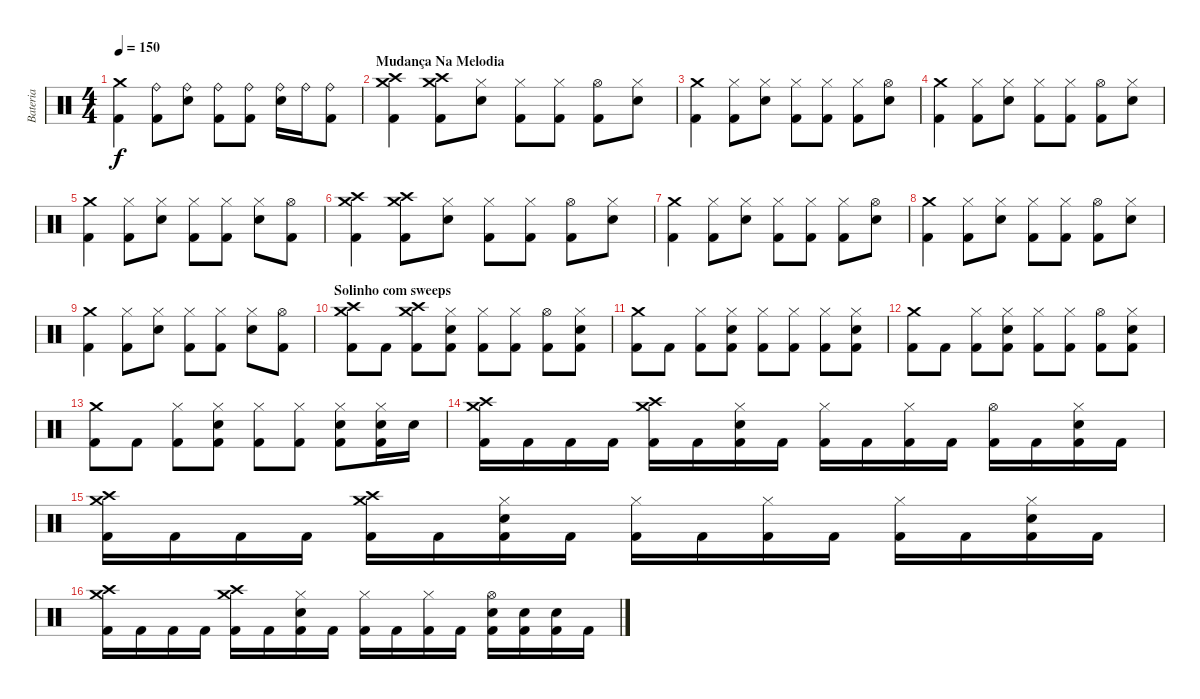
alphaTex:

\track ("Bateria" "Bateria") {instrument percussion}
\staff {score}
\articulation defaults
\ts (4 4)
\tempo 150
\clef neutral
\ks c
("Kick (hit) 2" "Crash medium (hit)").4{dy f} ("Kick (hit) 2" "Ride (bell)").8 ("Electric Snare (hit)" "Ride (bell)").8 ("Kick (hit) 2" "Ride (bell)").8 ("Kick (hit) 2" "Ride (bell)").8 ("Electric Snare (hit)" "Ride (bell)").16 "Ride (bell)".16 ("Kick (hit) 2" "Ride (bell)").8 |
\section ("" "Mudança Na Melodia")
("Kick (hit) 2" "Crash medium (hit)" "Crash high (hit)").4 ("Kick (hit) 2" "Crash medium (hit)" "Crash high (hit)").8 ("Electric Snare (hit)" "Hi-Hat (closed)").8 ("Kick (hit) 2" "Hi-Hat (closed)").8 ("Kick (hit) 2" "Hi-Hat (closed)").8 ("Kick (hit) 2" "Hi-Hat (open)").8 ("Electric Snare (hit)" "Hi-Hat (closed)").8 |
("Kick (hit) 2" "Crash medium (hit)").4 ("Kick (hit) 2" "Hi-Hat (closed)").8 ("Electric Snare (hit)" "Hi-Hat (closed)").8 ("Kick (hit) 2" "Hi-Hat (closed)").8 ("Kick (hit) 2" "Hi-Hat (closed)").8 ("Kick (hit) 2" "Hi-Hat (closed)").8 ("Electric Snare (hit)" "Hi-Hat (open)").8 |
("Kick (hit) 2" "Crash medium (hit)").4 ("Kick (hit) 2" "Hi-Hat (closed)").8 ("Electric Snare (hit)" "Hi-Hat (closed)").8 ("Kick (hit) 2" "Hi-Hat (closed)").8 ("Kick (hit) 2" "Hi-Hat (closed)").8 ("Kick (hit) 2" "Hi-Hat (open)").8 ("Electric Snare (hit)" "Hi-Hat (closed)").8 |
("Kick (hit) 2" "Crash medium (hit)").4 ("Kick (hit) 2" "Hi-Hat (closed)").8 ("Electric Snare (hit)" "Hi-Hat (closed)").8 ("Kick (hit) 2" "Hi-Hat (closed)").8 ("Kick (hit) 2" "Hi-Hat (closed)").8 ("Electric Snare (hit)" "Hi-Hat (closed)").8 ("Kick (hit) 2" "Hi-Hat (open)").8 |
("Kick (hit) 2" "Crash medium (hit)" "Crash high (hit)").4 ("Kick (hit) 2" "Crash medium (hit)" "Crash high (hit)").8 ("Electric Snare (hit)" "Hi-Hat (closed)").8 ("Kick (hit) 2" "Hi-Hat (closed)").8 ("Kick (hit) 2" "Hi-Hat (closed)").8 ("Kick (hit) 2" "Hi-Hat (open)").8 ("Electric Snare (hit)" "Hi-Hat (closed)").8 |
("Kick (hit) 2" "Crash medium (hit)").4 ("Kick (hit) 2" "Hi-Hat (closed)").8 ("Electric Snare (hit)" "Hi-Hat (closed)").8 ("Kick (hit) 2" "Hi-Hat (closed)").8 ("Kick (hit) 2" "Hi-Hat (closed)").8 ("Kick (hit) 2" "Hi-Hat (closed)").8 ("Electric Snare (hit)" "Hi-Hat (open)").8 |
("Kick (hit) 2" "Crash medium (hit)").4 ("Kick (hit) 2" "Hi-Hat (closed)").8 ("Electric Snare (hit)" "Hi-Hat (closed)").8 ("Kick (hit) 2" "Hi-Hat (closed)").8 ("Kick (hit) 2" "Hi-Hat (closed)").8 ("Kick (hit) 2" "Hi-Hat (open)").8 ("Electric Snare (hit)" "Hi-Hat (closed)").8 |
("Kick (hit) 2" "Crash medium (hit)").4 ("Kick (hit) 2" "Hi-Hat (closed)").8 ("Electric Snare (hit)" "Hi-Hat (closed)").8 ("Kick (hit) 2" "Hi-Hat (closed)").8 ("Kick (hit) 2" "Hi-Hat (closed)").8 ("Electric Snare (hit)" "Hi-Hat (closed)").8 ("Kick (hit) 2" "Hi-Hat (open)").8 |
\section ("" "Solinho com sweeps")
("Kick (hit) 2" "Crash medium (hit)" "Crash high (hit)").8 "Kick (hit) 2".8 ("Kick (hit) 2" "Crash medium (hit)" "Crash high (hit)").8 ("Kick (hit) 2" "Electric Snare (hit)" "Hi-Hat (closed)").8 ("Kick (hit) 2" "Hi-Hat (closed)").8 ("Kick (hit) 2" "Hi-Hat (closed)").8 ("Kick (hit) 2" "Hi-Hat (open)").8 ("Kick (hit) 2" "Electric Snare (hit)" "Hi-Hat (closed)").8 |
("Kick (hit) 2" "Crash medium (hit)").8 "Kick (hit) 2".8 ("Kick (hit) 2" "Hi-Hat (closed)").8 ("Kick (hit) 2" "Electric Snare (hit)" "Hi-Hat (closed)").8 ("Kick (hit) 2" "Hi-Hat (closed)").8 ("Kick (hit) 2" "Hi-Hat (closed)").8 ("Kick (hit) 2" "Hi-Hat (closed)").8 ("Kick (hit) 2" "Electric Snare (hit)" "Hi-Hat (closed)").8 |
("Kick (hit) 2" "Crash medium (hit)").8 "Kick (hit) 2".8 ("Kick (hit) 2" "Hi-Hat (closed)").8 ("Kick (hit) 2" "Electric Snare (hit)" "Hi-Hat (closed)").8 ("Kick (hit) 2" "Hi-Hat (closed)").8 ("Kick (hit) 2" "Hi-Hat (closed)").8 ("Kick (hit) 2" "Hi-Hat (open)").8 ("Kick (hit) 2" "Electric Snare (hit)" "Hi-Hat (closed)").8 |
("Kick (hit) 2" "Crash medium (hit)").8 "Kick (hit) 2".8 ("Kick (hit) 2" "Hi-Hat (closed)").8 ("Kick (hit) 2" "Electric Snare (hit)" "Hi-Hat (closed)").8 ("Kick (hit) 2" "Hi-Hat (closed)").8 ("Kick (hit) 2" "Hi-Hat (closed)").8 ("Kick (hit) 2" "Electric Snare (hit)" "Hi-Hat (closed)").8 ("Kick (hit) 2" "Electric Snare (hit)" "Hi-Hat (closed)").16 "Electric Snare (hit)".16 |
("Kick (hit) 2" "Crash medium (hit)" "Crash high (hit)").16 "Kick (hit) 2".16 "Kick (hit) 2".16 "Kick (hit) 2".16 ("Kick (hit) 2" "Crash medium (hit)" "Crash high (hit)").16 "Kick (hit) 2".16 ("Kick (hit) 2" "Electric Snare (hit)" "Hi-Hat (closed)").16 "Kick (hit) 2".16 ("Kick (hit) 2" "Hi-Hat (closed)").16 "Kick (hit) 2".16 ("Kick (hit) 2" "Hi-Hat (closed)").16 "Kick (hit) 2".16 ("Kick (hit) 2" "Hi-Hat (open)").16 "Kick (hit) 2".16 ("Kick (hit) 2" "Electric Snare (hit)" "Hi-Hat (closed)").16 "Kick (hit) 2".16 |
("Kick (hit) 2" "Crash medium (hit)" "Crash high (hit)").16 "Kick (hit) 2".16 "Kick (hit) 2".16 "Kick (hit) 2".16 ("Kick (hit) 2" "Crash medium (hit)" "Crash high (hit)").16 "Kick (hit) 2".16 ("Kick (hit) 2" "Electric Snare (hit)" "Hi-Hat (closed)").16 "Kick (hit) 2".16 ("Kick (hit) 2" "Hi-Hat (closed)").16 "Kick (hit) 2".16 ("Kick (hit) 2" "Hi-Hat (closed)").16 "Kick (hit) 2".16 ("Kick (hit) 2" "Hi-Hat (closed)").16 "Kick (hit) 2".16 ("Kick (hit) 2" "Electric Snare (hit)" "Hi-Hat (closed)").16 "Kick (hit) 2".16 |
("Kick (hit) 2" "Crash medium (hit)" "Crash high (hit)").16 "Kick (hit) 2".16 "Kick (hit) 2".16 "Kick (hit) 2".16 ("Kick (hit) 2" "Crash medium (hit)" "Crash high (hit)").16 "Kick (hit) 2".16 ("Kick (hit) 2" "Electric Snare (hit)" "Hi-Hat (closed)").16 "Kick (hit) 2".16 ("Kick (hit) 2" "Hi-Hat (closed)").16 "Kick (hit) 2".16 ("Kick (hit) 2" "Hi-Hat (closed)").16 "Kick (hit) 2".16 ("Kick (hit) 2" "Electric Snare (hit)" "Hi-Hat (open)").16 ("Kick (hit) 2" "Electric Snare (hit)").16 ("Kick (hit) 2" "Electric Snare (hit)").16 "Kick (hit) 2".16
